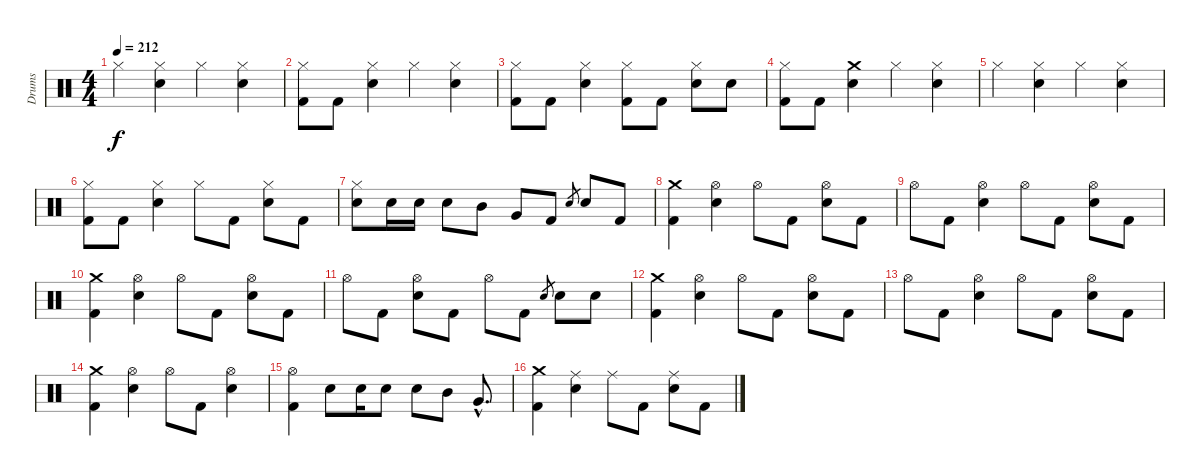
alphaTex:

\track ("Drums" "Drums") {instrument percussion}
\staff {score}
\articulation defaults
\ts (4 4)
\tempo 212
\clef neutral
\ks c "Hi-Hat (closed)".4{dy f}
("Hi-Hat (closed)" "Electric Snare (hit)").4 "Hi-Hat (closed)".4 ("Hi-Hat (closed)" "Electric Snare (hit)").4 |
("Hi-Hat (closed)" "Kick (hit) 2").8 "Kick (hit) 2".8 ("Hi-Hat (closed)" "Electric Snare (hit)").4 "Hi-Hat (closed)".4 ("Hi-Hat (closed)" "Electric Snare (hit)").4 |
("Hi-Hat (closed)" "Kick (hit) 2").8 "Kick (hit) 2".8 ("Hi-Hat (closed)" "Electric Snare (hit)").4 ("Hi-Hat (closed)" "Kick (hit) 2").8 "Kick (hit) 2".8 ("Hi-Hat (closed)" "Electric Snare (hit)").8 "Electric Snare (hit)".8 |
("Hi-Hat (closed)" "Kick (hit) 2").8 "Kick (hit) 2".8 ("Crash medium (hit)" "Electric Snare (hit)").4 "Hi-Hat (closed)".4 ("Hi-Hat (closed)" "Electric Snare (hit)").4 |
"Hi-Hat (closed)".4 ("Hi-Hat (closed)" "Electric Snare (hit)").4 "Hi-Hat (closed)".4 ("Hi-Hat (closed)" "Electric Snare (hit)").4 |
("Hi-Hat (closed)" "Kick (hit) 2").8 "Kick (hit) 2".8 ("Hi-Hat (closed)" "Electric Snare (hit)").4 "Hi-Hat (closed)".8 "Kick (hit) 2".8 ("Hi-Hat (closed)" "Electric Snare (hit)").8 "Kick (hit) 2".8 |
("Hi-Hat (closed)" "Electric Snare (hit)").8 "Electric Snare (hit)".16 "Electric Snare (hit)".16 "Electric Snare (hit)".8 "Mid Tom (hit)".8 "Very Low Tom (hit)".8 "Kick (hit) 2".8 "Electric Snare (hit)".8{gr} "Electric Snare (hit)".8 "Kick (hit) 2".8 |
("Crash medium (hit)" "Kick (hit) 2").4 ("Hi-Hat (open)" "Electric Snare (hit)").4 "Hi-Hat (open)".8 "Kick (hit) 2".8 ("Hi-Hat (open)" "Electric Snare (hit)").8 "Kick (hit) 2".8 |
"Hi-Hat (open)".8 "Kick (hit) 2".8 ("Hi-Hat (open)" "Electric Snare (hit)").4 "Hi-Hat (open)".8 "Kick (hit) 2".8 ("Hi-Hat (open)" "Electric Snare (hit)").8 "Kick (hit) 2".8 |
("Crash medium (hit)" "Kick (hit) 2").4 ("Hi-Hat (open)" "Electric Snare (hit)").4 "Hi-Hat (open)".8 "Kick (hit) 2".8 ("Hi-Hat (open)" "Electric Snare (hit)").8 "Kick (hit) 2".8 |
"Hi-Hat (open)".8 "Kick (hit) 2".8 ("Hi-Hat (open)" "Electric Snare (hit)").8 "Kick (hit) 2".8 "Hi-Hat (open)".8 "Kick (hit) 2".8 "Electric Snare (hit)".8{gr} "Electric Snare (hit)".8 "Electric Snare (hit)".8 |
("Crash medium (hit)" "Kick (hit) 2").4 ("Hi-Hat (open)" "Electric Snare (hit)").4 "Hi-Hat (open)".8 "Kick (hit) 2".8 ("Hi-Hat (open)" "Electric Snare (hit)").8 "Kick (hit) 2".8 |
"Hi-Hat (open)".8 "Kick (hit) 2".8 ("Hi-Hat (open)" "Electric Snare (hit)").4 "Hi-Hat (open)".8 "Kick (hit) 2".8 ("Hi-Hat (open)" "Electric Snare (hit)").8 "Kick (hit) 2".8 |
("Crash medium (hit)" "Kick (hit) 2").4 ("Hi-Hat (open)" "Electric Snare (hit)").4 "Hi-Hat (open)".8 "Kick (hit) 2".8 ("Hi-Hat (open)" "Electric Snare (hit)").4 |
("Hi-Hat (open)" "Kick (hit) 2").4 "Electric Snare (hit)".8 "Electric Snare (hit)".16 "Electric Snare (hit)".8 "Electric Snare (hit)".8 "Mid Tom (hit)".8 "Very Low Tom (hit)"{hac}.8{d} |
("Crash medium (hit)" "Kick (hit) 2").4 ("Ride (middle)" "Electric Snare (hit)").4 "Ride (middle)".8 "Kick (hit) 2".8 ("Ride (middle)" "Electric Snare (hit)").8 "Kick (hit) 2".8
